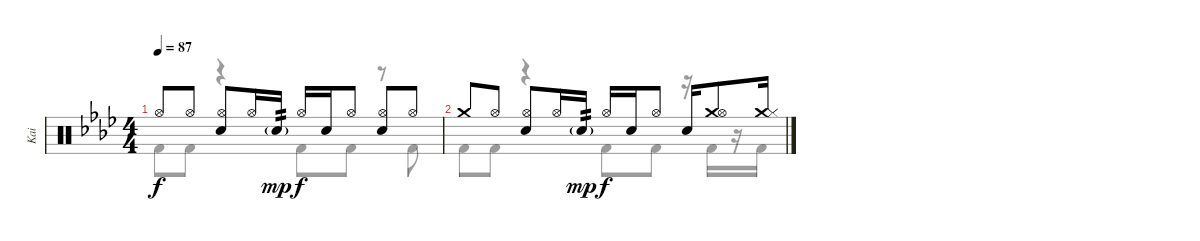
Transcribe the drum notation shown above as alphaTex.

\track ("Kai" "Kai") {instrument percussion}
\staff {score}
\articulation defaults
\voice
\ts (4 4)
\tempo 87
\clef neutral
\ks ab "Hi-Hat (open)".8{dy f} "Hi-Hat (open)".8
("Hi-Hat (open)" "Snare (hit) 2").8 "Hi-Hat (open)".16 "Snare (hit) 2"{g}.16{tp 2 dy mp} "Hi-Hat (open)".16{dy f} "Snare (hit) 2".16 "Hi-Hat (open)".8 ("Hi-Hat (open)" "Snare (hit) 2").8 "Hi-Hat (open)".8 |
"Crash medium (hit)".8 "Hi-Hat (open)".8 ("Hi-Hat (open)" "Snare (hit) 2").8 "Hi-Hat (open)".16 "Snare (hit) 2"{g}.16{tp 2 dy mp} "Hi-Hat (open)".16{dy f} "Snare (hit) 2".16 "Hi-Hat (open)".8 "Snare (hit) 2".16 ("Crash medium (hit)" "Hi-Hat (open)").8 ("Crash medium (hit)" "Hi-Hat (closed)").16
\voice
\clef neutral
\ottava regular
\simile none
\ks ab "Kick (hit) 2".8{dy f} "Kick (hit) 2".8
r.4 "Kick (hit) 2".8 "Kick (hit) 2".8 r.8 "Kick (hit) 2".8 |
"Kick (hit) 2".8 "Kick (hit) 2".8 r.4 "Kick (hit) 2".8 "Kick (hit) 2".8 r.16 "Kick (hit) 2".16 r.16 "Kick (hit) 2".16
